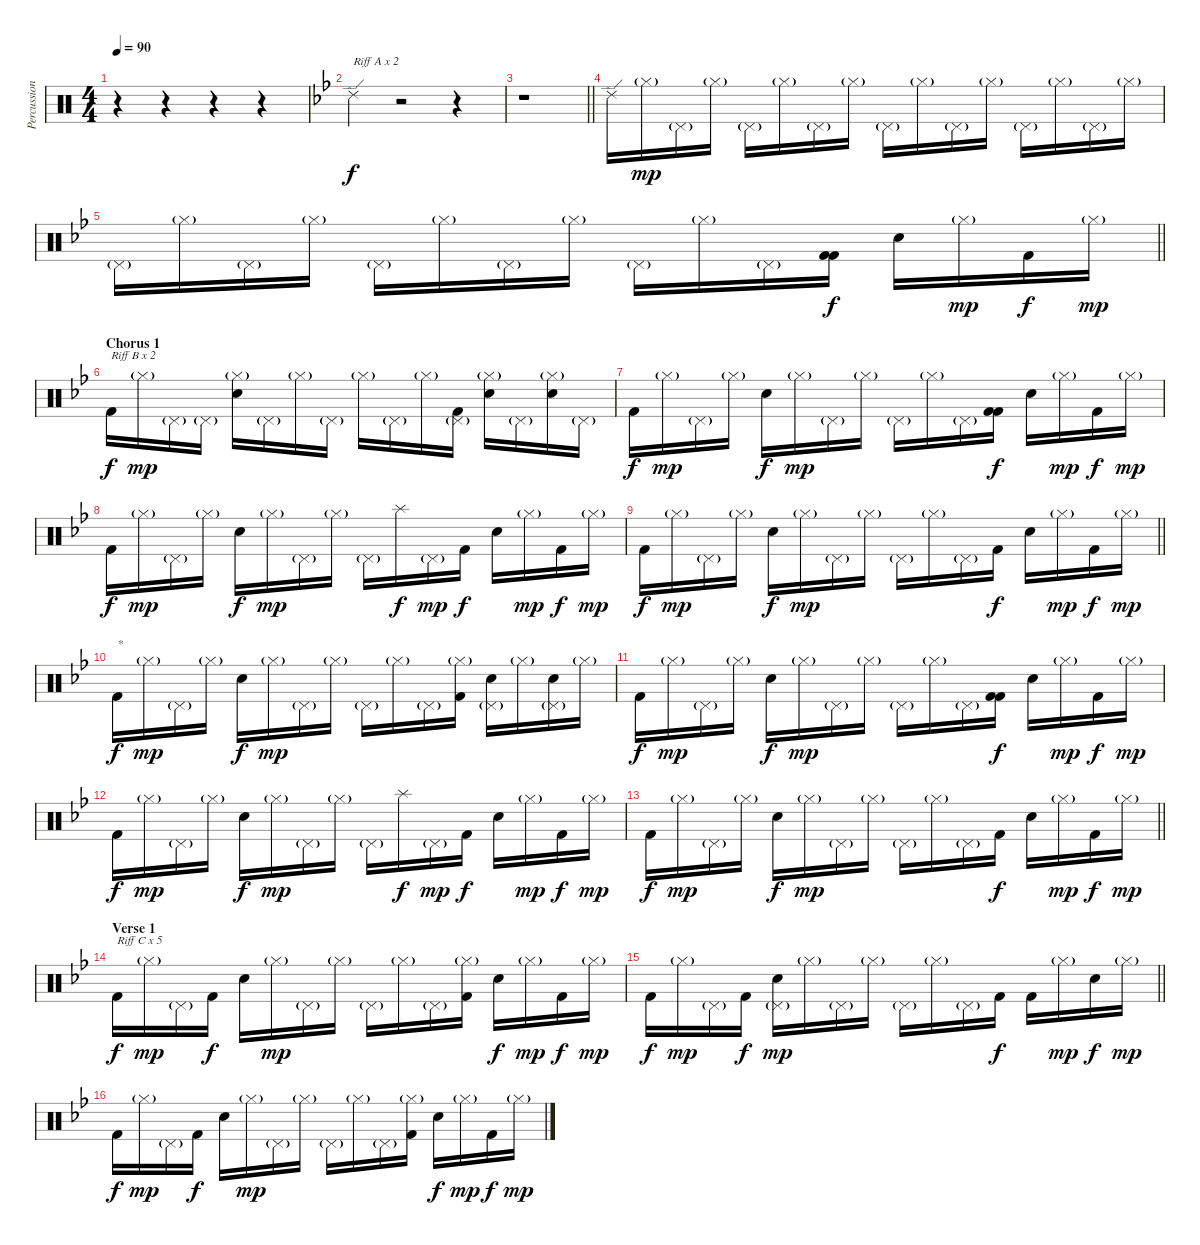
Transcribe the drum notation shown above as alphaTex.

\track ("Percussion" "Percussion") {instrument percussion}
\staff {score}
\articulation defaults
\ts (4 4)
\tempo 90
\clef neutral
\ks c
r.4{dy f} r.4 r.4 r.4 |
\ks bb "Ride (edge) 2".4{txt "Riff A x 2"}
r.2 r.4 |
\barLineRight lightlight
r.1 |
"Ride (edge) 2".16 "Hi-Hat (closed)"{g}.16{dy mp} "Pedal Hi-Hat (hit)"{g}.16 "Hi-Hat (closed)"{g}.16 "Pedal Hi-Hat (hit)"{g}.16 "Hi-Hat (closed)"{g}.16 "Pedal Hi-Hat (hit)"{g}.16 "Hi-Hat (closed)"{g}.16 "Pedal Hi-Hat (hit)"{g}.16 "Hi-Hat (closed)"{g}.16 "Pedal Hi-Hat (hit)"{g}.16 "Hi-Hat (closed)"{g}.16 "Pedal Hi-Hat (hit)"{g}.16 "Hi-Hat (closed)"{g}.16 "Pedal Hi-Hat (hit)"{g}.16 "Hi-Hat (closed)"{g}.16 |
\barLineRight lightlight "Pedal Hi-Hat (hit)"{g}.16 "Hi-Hat (closed)"{g}.16 "Pedal Hi-Hat (hit)"{g}.16 "Hi-Hat (closed)"{g}.16 "Pedal Hi-Hat (hit)"{g}.16 "Hi-Hat (closed)"{g}.16 "Pedal Hi-Hat (hit)"{g}.16 "Hi-Hat (closed)"{g}.16 "Pedal Hi-Hat (hit)"{g}.16 "Hi-Hat (closed)"{g}.16 "Pedal Hi-Hat (hit)"{g}.16
("Kick (hit) 2" "Kick (hit) 2").16{dy f} "Snare (hit) 2".16 "Hi-Hat (closed)"{g}.16{dy mp} "Kick (hit) 2".16{dy f} "Hi-Hat (closed)"{g}.16{dy mp} |
\section ("" "Chorus 1")
"Kick (hit) 2".16{txt "Riff B x 2" dy f} "Hi-Hat (closed)"{g}.16{dy mp} "Pedal Hi-Hat (hit)"{g}.16 "Pedal Hi-Hat (hit)"{g}.16 ("Hi-Hat (closed)"{g} "Snare (hit) 2").16 "Pedal Hi-Hat (hit)"{g}.16 "Hi-Hat (closed)"{g}.16 "Pedal Hi-Hat (hit)"{g}.16 "Hi-Hat (closed)"{g}.16 "Pedal Hi-Hat (hit)"{g}.16 "Hi-Hat (closed)"{g}.16 ("Pedal Hi-Hat (hit)"{g} "Kick (hit) 2").16 ("Hi-Hat (closed)"{g} "Snare (hit) 2").16 "Pedal Hi-Hat (hit)"{g}.16 ("Hi-Hat (closed)"{g} "Snare (hit) 2").16 "Pedal Hi-Hat (hit)"{g}.16 |
"Kick (hit) 2".16{dy f} "Hi-Hat (closed)"{g}.16{dy mp} "Pedal Hi-Hat (hit)"{g}.16 "Hi-Hat (closed)"{g}.16 "Snare (hit) 2".16{dy f} "Hi-Hat (closed)"{g}.16{dy mp} "Pedal Hi-Hat (hit)"{g}.16 "Hi-Hat (closed)"{g}.16 "Pedal Hi-Hat (hit)"{g}.16 "Hi-Hat (closed)"{g}.16 "Pedal Hi-Hat (hit)"{g}.16 ("Kick (hit) 2" "Kick (hit) 2").16{dy f} "Snare (hit) 2".16 "Hi-Hat (closed)"{g}.16{dy mp} "Kick (hit) 2".16{dy f} "Hi-Hat (closed)"{g}.16{dy mp} |
"Kick (hit) 2".16{dy f} "Hi-Hat (closed)"{g}.16{dy mp} "Pedal Hi-Hat (hit)"{g}.16 "Hi-Hat (closed)"{g}.16 "Snare (hit) 2".16{dy f} "Hi-Hat (closed)"{g}.16{dy mp} "Pedal Hi-Hat (hit)"{g}.16 "Hi-Hat (closed)"{g}.16 "Pedal Hi-Hat (hit)"{g}.16 "Splash (hit)".16{dy f} "Pedal Hi-Hat (hit)"{g}.16{dy mp} "Kick (hit) 2".16{dy f} "Snare (hit) 2".16 "Hi-Hat (closed)"{g}.16{dy mp} "Kick (hit) 2".16{dy f} "Hi-Hat (closed)"{g}.16{dy mp} |
\barLineRight lightlight "Kick (hit) 2".16{dy f} "Hi-Hat (closed)"{g}.16{dy mp} "Pedal Hi-Hat (hit)"{g}.16 "Hi-Hat (closed)"{g}.16 "Snare (hit) 2".16{dy f} "Hi-Hat (closed)"{g}.16{dy mp} "Pedal Hi-Hat (hit)"{g}.16 "Hi-Hat (closed)"{g}.16 "Pedal Hi-Hat (hit)"{g}.16 "Hi-Hat (closed)"{g}.16 "Pedal Hi-Hat (hit)"{g}.16 "Kick (hit) 2".16{dy f} "Snare (hit) 2".16 "Hi-Hat (closed)"{g}.16{dy mp} "Kick (hit) 2".16{dy f} "Hi-Hat (closed)"{g}.16{dy mp}
|
"Kick (hit) 2".16{txt "*" dy f} "Hi-Hat (closed)"{g}.16{dy mp} "Pedal Hi-Hat (hit)"{g}.16 "Hi-Hat (closed)"{g}.16 "Snare (hit) 2".16{dy f} "Hi-Hat (closed)"{g}.16{dy mp} "Pedal Hi-Hat (hit)"{g}.16 "Hi-Hat (closed)"{g}.16 "Pedal Hi-Hat (hit)"{g}.16 "Hi-Hat (closed)"{g}.16 "Pedal Hi-Hat (hit)"{g}.16 ("Hi-Hat (closed)"{g} "Kick (hit) 2").16 ("Pedal Hi-Hat (hit)"{g} "Snare (hit) 2").16 "Hi-Hat (closed)"{g}.16 ("Pedal Hi-Hat (hit)"{g} "Snare (hit) 2").16 "Hi-Hat (closed)"{g}.16 |
"Kick (hit) 2".16{dy f} "Hi-Hat (closed)"{g}.16{dy mp} "Pedal Hi-Hat (hit)"{g}.16 "Hi-Hat (closed)"{g}.16 "Snare (hit) 2".16{dy f} "Hi-Hat (closed)"{g}.16{dy mp} "Pedal Hi-Hat (hit)"{g}.16 "Hi-Hat (closed)"{g}.16 "Pedal Hi-Hat (hit)"{g}.16 "Hi-Hat (closed)"{g}.16 "Pedal Hi-Hat (hit)"{g}.16 ("Kick (hit) 2" "Kick (hit) 2").16{dy f} "Snare (hit) 2".16 "Hi-Hat (closed)"{g}.16{dy mp} "Kick (hit) 2".16{dy f} "Hi-Hat (closed)"{g}.16{dy mp} |
"Kick (hit) 2".16{dy f} "Hi-Hat (closed)"{g}.16{dy mp} "Pedal Hi-Hat (hit)"{g}.16 "Hi-Hat (closed)"{g}.16 "Snare (hit) 2".16{dy f} "Hi-Hat (closed)"{g}.16{dy mp} "Pedal Hi-Hat (hit)"{g}.16 "Hi-Hat (closed)"{g}.16 "Pedal Hi-Hat (hit)"{g}.16 "Splash (hit)".16{dy f} "Pedal Hi-Hat (hit)"{g}.16{dy mp} "Kick (hit) 2".16{dy f} "Snare (hit) 2".16 "Hi-Hat (closed)"{g}.16{dy mp} "Kick (hit) 2".16{dy f} "Hi-Hat (closed)"{g}.16{dy mp} |
\barLineRight lightlight "Kick (hit) 2".16{dy f} "Hi-Hat (closed)"{g}.16{dy mp} "Pedal Hi-Hat (hit)"{g}.16 "Hi-Hat (closed)"{g}.16 "Snare (hit) 2".16{dy f} "Hi-Hat (closed)"{g}.16{dy mp} "Pedal Hi-Hat (hit)"{g}.16 "Hi-Hat (closed)"{g}.16 "Pedal Hi-Hat (hit)"{g}.16 "Hi-Hat (closed)"{g}.16 "Pedal Hi-Hat (hit)"{g}.16 "Kick (hit) 2".16{dy f} "Snare (hit) 2".16 "Hi-Hat (closed)"{g}.16{dy mp} "Kick (hit) 2".16{dy f} "Hi-Hat (closed)"{g}.16{dy mp}
|
\section ("" "Verse 1")
"Kick (hit) 2".16{txt "Riff C x 5" dy f} "Hi-Hat (closed)"{g}.16{dy mp} "Pedal Hi-Hat (hit)"{g}.16 "Kick (hit) 2".16{dy f} "Electric Snare (hit)".16 "Hi-Hat (closed)"{g}.16{dy mp} "Pedal Hi-Hat (hit)"{g}.16 "Hi-Hat (closed)"{g}.16 "Pedal Hi-Hat (hit)"{g}.16 "Hi-Hat (closed)"{g}.16 "Pedal Hi-Hat (hit)"{g}.16 ("Hi-Hat (closed)"{g} "Kick (hit) 2").16 "Snare (hit) 2".16{dy f} "Hi-Hat (closed)"{g}.16{dy mp} "Kick (hit) 2".16{dy f} "Hi-Hat (closed)"{g}.16{dy mp} |
\barLineRight lightlight "Kick (hit) 2".16{dy f} "Hi-Hat (closed)"{g}.16{dy mp} "Pedal Hi-Hat (hit)"{g}.16 "Kick (hit) 2".16{dy f}
("Pedal Hi-Hat (hit)"{g} "Snare (hit) 2").16{dy mp} "Hi-Hat (closed)"{g}.16 "Pedal Hi-Hat (hit)"{g}.16 "Hi-Hat (closed)"{g}.16 "Pedal Hi-Hat (hit)"{g}.16 "Hi-Hat (closed)"{g}.16 "Pedal Hi-Hat (hit)"{g}.16 "Kick (hit) 2".16{dy f} "Kick (hit) 2".16 "Hi-Hat (closed)"{g}.16{dy mp} "Snare (hit) 2".16{dy f} "Hi-Hat (closed)"{g}.16{dy mp} |
"Kick (hit) 2".16{dy f} "Hi-Hat (closed)"{g}.16{dy mp} "Pedal Hi-Hat (hit)"{g}.16 "Kick (hit) 2".16{dy f} "Electric Snare (hit)".16 "Hi-Hat (closed)"{g}.16{dy mp} "Pedal Hi-Hat (hit)"{g}.16 "Hi-Hat (closed)"{g}.16 "Pedal Hi-Hat (hit)"{g}.16 "Hi-Hat (closed)"{g}.16 "Pedal Hi-Hat (hit)"{g}.16 ("Hi-Hat (closed)"{g} "Kick (hit) 2").16 "Snare (hit) 2".16{dy f} "Hi-Hat (closed)"{g}.16{dy mp} "Kick (hit) 2".16{dy f} "Hi-Hat (closed)"{g}.16{dy mp}
